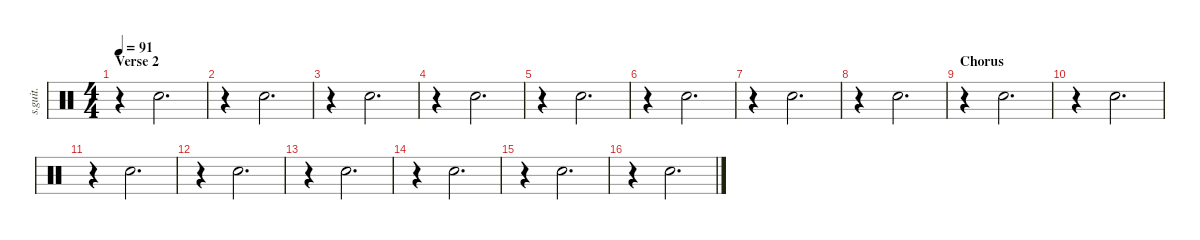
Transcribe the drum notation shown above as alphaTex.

\defaultSystemsLayout 4
\hideDynamics
\bracketExtendMode nobrackets
\track ("Hand Clap" "s.guit.") {instrument percussion}
\staff {score}
\articulation defaults
\ts (4 4)
\section ("" "Verse 2")
\tempo 91
\clef neutral
\ks c
r.4{dy fff} "Hand Clap (hit)".2{d} |
r.4 "Hand Clap (hit)".2{d} |
r.4 "Hand Clap (hit)".2{d} |
r.4 "Hand Clap (hit)".2{d} |
r.4 "Hand Clap (hit)".2{d} |
r.4 "Hand Clap (hit)".2{d} |
r.4 "Hand Clap (hit)".2{d} |
r.4 "Hand Clap (hit)".2{d} |
\section ("" "Chorus")
r.4 "Hand Clap (hit)".2{d} |
r.4 "Hand Clap (hit)".2{d} |
r.4 "Hand Clap (hit)".2{d} |
r.4 "Hand Clap (hit)".2{d} |
r.4 "Hand Clap (hit)".2{d} |
r.4 "Hand Clap (hit)".2{d} |
r.4 "Hand Clap (hit)".2{d} |
r.4 "Hand Clap (hit)".2{d}
